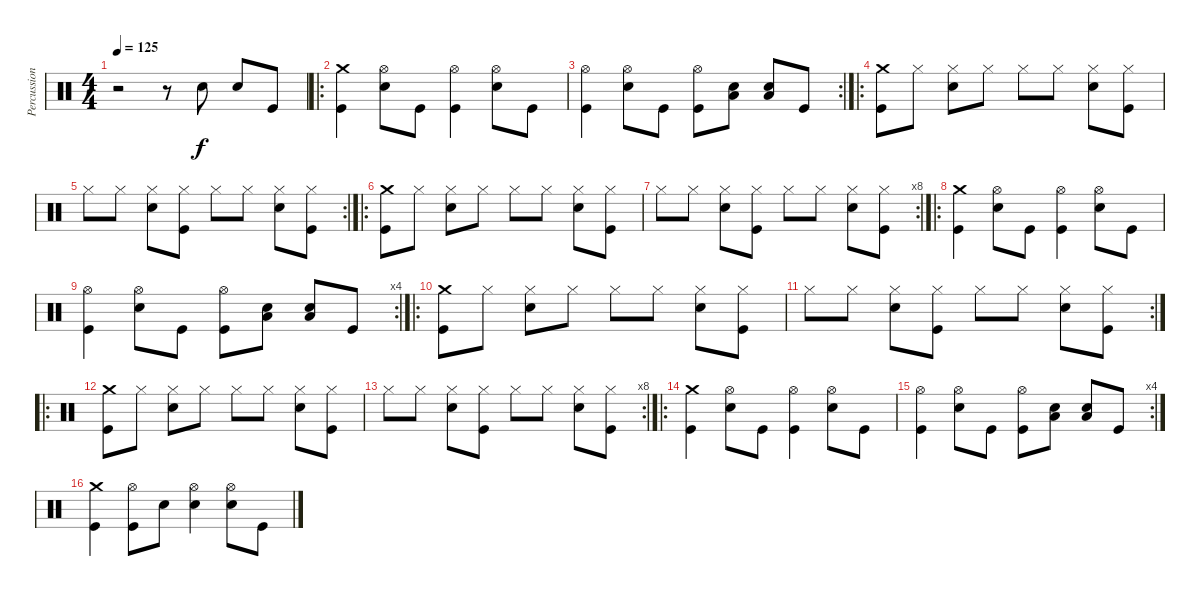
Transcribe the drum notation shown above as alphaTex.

\track ("Percussion" "Percussion") {instrument percussion}
\staff {score}
\articulation defaults
\ts (4 4)
\tempo 125
\clef neutral
\ks c
r.2{dy f} r.8 "Snare (hit) 2".8 "Snare (hit) 2".8 "Kick (hit)".8 |
\ro
("Kick (hit)" "Crash medium (hit)").4 ("Snare (hit) 2" "Hi-Hat (open)").8 "Kick (hit)".8 ("Kick (hit)" "Hi-Hat (open)").4 ("Snare (hit) 2" "Hi-Hat (open)").8 "Kick (hit)".8 |
\rc 2
("Kick (hit)" "Hi-Hat (open)").4 ("Snare (hit) 2" "Hi-Hat (open)").8 "Kick (hit)".8 ("Kick (hit)" "Hi-Hat (open)").8 ("Snare (hit) 2" "Low Tom (hit)").8 ("Snare (hit) 2" "Low Tom (hit)").8 "Kick (hit)".8 |
\ro
("Crash medium (hit)" "Kick (hit)").8 "Hi-Hat (closed)".8 ("Hi-Hat (closed)" "Snare (hit) 2").8 "Hi-Hat (closed)".8 "Hi-Hat (closed)".8 "Hi-Hat (closed)".8 ("Hi-Hat (closed)" "Snare (hit) 2").8 ("Hi-Hat (closed)" "Kick (hit)").8 |
\rc 2 "Hi-Hat (closed)".8 "Hi-Hat (closed)".8
("Hi-Hat (closed)" "Snare (hit) 2").8 ("Hi-Hat (closed)" "Kick (hit)").8 "Hi-Hat (closed)".8 "Hi-Hat (closed)".8 ("Hi-Hat (closed)" "Snare (hit) 2").8 ("Hi-Hat (closed)" "Kick (hit)").8 |
\ro
("Crash medium (hit)" "Kick (hit)").8 "Hi-Hat (closed)".8 ("Hi-Hat (closed)" "Snare (hit) 2").8 "Hi-Hat (closed)".8 "Hi-Hat (closed)".8 "Hi-Hat (closed)".8 ("Hi-Hat (closed)" "Snare (hit) 2").8 ("Hi-Hat (closed)" "Kick (hit)").8 |
\rc 8 "Hi-Hat (closed)".8 "Hi-Hat (closed)".8
("Hi-Hat (closed)" "Snare (hit) 2").8 ("Hi-Hat (closed)" "Kick (hit)").8 "Hi-Hat (closed)".8 "Hi-Hat (closed)".8 ("Hi-Hat (closed)" "Snare (hit) 2").8 ("Hi-Hat (closed)" "Kick (hit)").8 |
\ro
("Kick (hit)" "Crash medium (hit)").4 ("Snare (hit) 2" "Hi-Hat (open)").8 "Kick (hit)".8 ("Kick (hit)" "Hi-Hat (open)").4 ("Snare (hit) 2" "Hi-Hat (open)").8 "Kick (hit)".8 |
\rc 4
("Kick (hit)" "Hi-Hat (open)").4 ("Snare (hit) 2" "Hi-Hat (open)").8 "Kick (hit)".8 ("Kick (hit)" "Hi-Hat (open)").8 ("Snare (hit) 2" "Low Tom (hit)").8 ("Snare (hit) 2" "Low Tom (hit)").8 "Kick (hit)".8 |
\ro
("Crash medium (hit)" "Kick (hit)").8 "Hi-Hat (closed)".8 ("Hi-Hat (closed)" "Snare (hit) 2").8 "Hi-Hat (closed)".8 "Hi-Hat (closed)".8 "Hi-Hat (closed)".8 ("Hi-Hat (closed)" "Snare (hit) 2").8 ("Hi-Hat (closed)" "Kick (hit)").8 |
\rc 2 "Hi-Hat (closed)".8 "Hi-Hat (closed)".8
("Hi-Hat (closed)" "Snare (hit) 2").8 ("Hi-Hat (closed)" "Kick (hit)").8 "Hi-Hat (closed)".8 "Hi-Hat (closed)".8 ("Hi-Hat (closed)" "Snare (hit) 2").8 ("Hi-Hat (closed)" "Kick (hit)").8 |
\ro
("Crash medium (hit)" "Kick (hit)").8 "Hi-Hat (closed)".8 ("Hi-Hat (closed)" "Snare (hit) 2").8 "Hi-Hat (closed)".8 "Hi-Hat (closed)".8 "Hi-Hat (closed)".8 ("Hi-Hat (closed)" "Snare (hit) 2").8 ("Hi-Hat (closed)" "Kick (hit)").8 |
\rc 8 "Hi-Hat (closed)".8 "Hi-Hat (closed)".8
("Hi-Hat (closed)" "Snare (hit) 2").8 ("Hi-Hat (closed)" "Kick (hit)").8 "Hi-Hat (closed)".8 "Hi-Hat (closed)".8 ("Hi-Hat (closed)" "Snare (hit) 2").8 ("Hi-Hat (closed)" "Kick (hit)").8 |
\ro
("Kick (hit)" "Crash medium (hit)").4 ("Snare (hit) 2" "Hi-Hat (open)").8 "Kick (hit)".8 ("Kick (hit)" "Hi-Hat (open)").4 ("Snare (hit) 2" "Hi-Hat (open)").8 "Kick (hit)".8 |
\rc 4
("Kick (hit)" "Hi-Hat (open)").4 ("Snare (hit) 2" "Hi-Hat (open)").8 "Kick (hit)".8 ("Kick (hit)" "Hi-Hat (open)").8 ("Snare (hit) 2" "Low Tom (hit)").8 ("Snare (hit) 2" "Low Tom (hit)").8 "Kick (hit)".8 |
("Kick (hit)" "Crash medium (hit)").4 ("Kick (hit)" "Hi-Hat (open)").8 "Snare (hit) 2".8 ("Snare (hit) 2" "Hi-Hat (open)").4 ("Snare (hit) 2" "Hi-Hat (open)").8 "Kick (hit)".8
